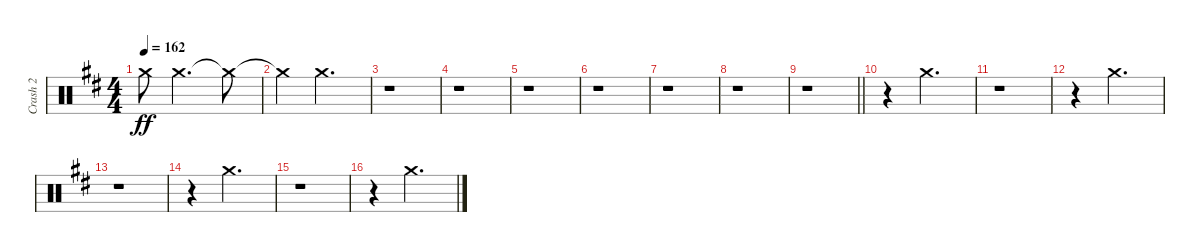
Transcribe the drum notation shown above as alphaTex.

\track ("Сrash 2" "Сrash 2") {instrument percussion}
\staff {score}
\articulation defaults
\ts (4 4)
\tempo 162
\clef neutral
\ks bminor "Crash medium (hit)"{t}.8{dy ff} "Crash medium (hit)".2{d} "Crash medium (hit)"{t}.8
|
"Crash medium (hit)"{t}.4 "Crash medium (hit)".2{d} |
r.1 |
r.1 |
r.1 |
r.1 |
r.1 |
r.1 |
\barLineRight lightlight
r.1 |
r.4 "Crash medium (hit)".2{d} |
r.1 |
r.4 "Crash medium (hit)".2{d} |
r.1 |
r.4 "Crash medium (hit)".2{d} |
r.1 |
r.4 "Crash medium (hit)".2{d}
